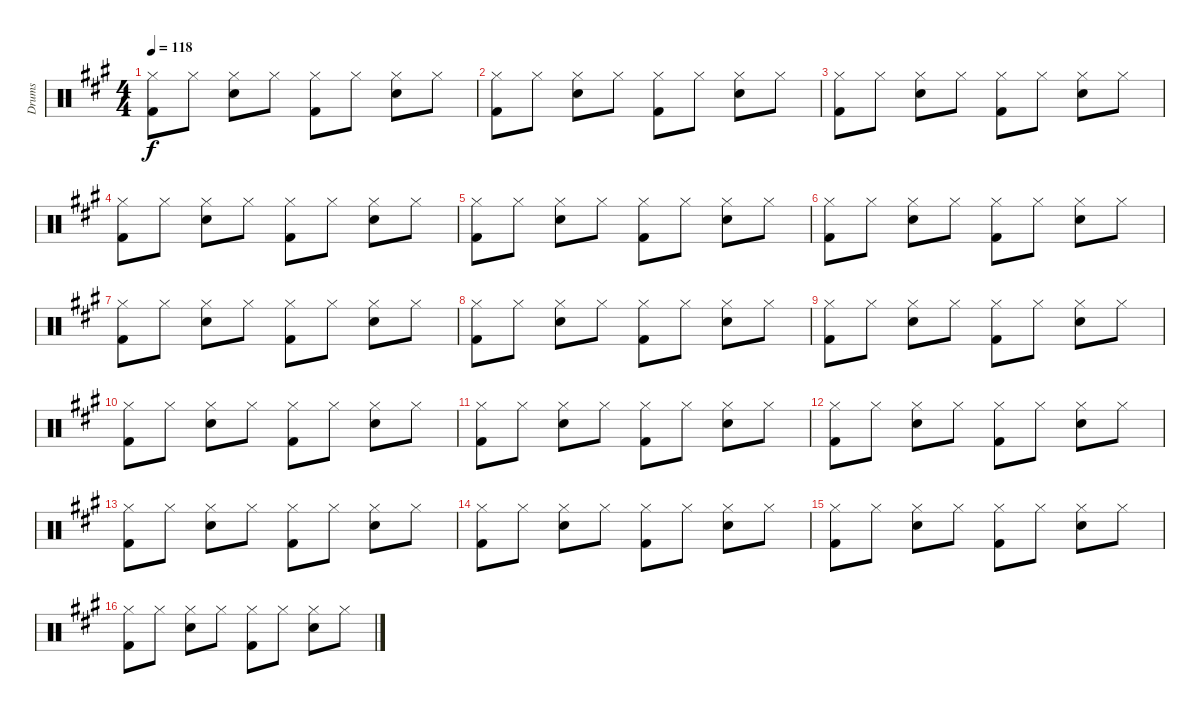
\track ("Drums" "Drums") {instrument percussion}
\staff {score}
\articulation defaults
\ts (4 4)
\tempo 118
\clef neutral
\ks f#minor
("Hi-Hat (closed)" "Kick (hit) 2").8{dy f} "Hi-Hat (closed)".8 ("Hi-Hat (closed)" "Snare (hit) 2").8 "Hi-Hat (closed)".8 ("Hi-Hat (closed)" "Kick (hit) 2").8 "Hi-Hat (closed)".8 ("Hi-Hat (closed)" "Snare (hit) 2").8 "Hi-Hat (closed)".8 |
("Hi-Hat (closed)" "Kick (hit) 2").8 "Hi-Hat (closed)".8 ("Hi-Hat (closed)" "Snare (hit) 2").8 "Hi-Hat (closed)".8 ("Hi-Hat (closed)" "Kick (hit) 2").8 "Hi-Hat (closed)".8 ("Hi-Hat (closed)" "Snare (hit) 2").8 "Hi-Hat (closed)".8 |
("Hi-Hat (closed)" "Kick (hit) 2").8 "Hi-Hat (closed)".8 ("Hi-Hat (closed)" "Snare (hit) 2").8 "Hi-Hat (closed)".8 ("Hi-Hat (closed)" "Kick (hit) 2").8 "Hi-Hat (closed)".8 ("Hi-Hat (closed)" "Snare (hit) 2").8 "Hi-Hat (closed)".8 |
("Hi-Hat (closed)" "Kick (hit) 2").8 "Hi-Hat (closed)".8 ("Hi-Hat (closed)" "Snare (hit) 2").8 "Hi-Hat (closed)".8 ("Hi-Hat (closed)" "Kick (hit) 2").8 "Hi-Hat (closed)".8 ("Hi-Hat (closed)" "Snare (hit) 2").8 "Hi-Hat (closed)".8 |
("Hi-Hat (closed)" "Kick (hit) 2").8 "Hi-Hat (closed)".8 ("Hi-Hat (closed)" "Snare (hit) 2").8 "Hi-Hat (closed)".8 ("Hi-Hat (closed)" "Kick (hit) 2").8 "Hi-Hat (closed)".8 ("Hi-Hat (closed)" "Snare (hit) 2").8 "Hi-Hat (closed)".8 |
("Hi-Hat (closed)" "Kick (hit) 2").8 "Hi-Hat (closed)".8 ("Hi-Hat (closed)" "Snare (hit) 2").8 "Hi-Hat (closed)".8 ("Hi-Hat (closed)" "Kick (hit) 2").8 "Hi-Hat (closed)".8 ("Hi-Hat (closed)" "Snare (hit) 2").8 "Hi-Hat (closed)".8 |
("Hi-Hat (closed)" "Kick (hit) 2").8 "Hi-Hat (closed)".8 ("Hi-Hat (closed)" "Snare (hit) 2").8 "Hi-Hat (closed)".8 ("Hi-Hat (closed)" "Kick (hit) 2").8 "Hi-Hat (closed)".8 ("Hi-Hat (closed)" "Snare (hit) 2").8 "Hi-Hat (closed)".8 |
("Hi-Hat (closed)" "Kick (hit) 2").8 "Hi-Hat (closed)".8 ("Hi-Hat (closed)" "Snare (hit) 2").8 "Hi-Hat (closed)".8 ("Hi-Hat (closed)" "Kick (hit) 2").8 "Hi-Hat (closed)".8 ("Hi-Hat (closed)" "Snare (hit) 2").8 "Hi-Hat (closed)".8 |
("Hi-Hat (closed)" "Kick (hit) 2").8 "Hi-Hat (closed)".8 ("Hi-Hat (closed)" "Snare (hit) 2").8 "Hi-Hat (closed)".8 ("Hi-Hat (closed)" "Kick (hit) 2").8 "Hi-Hat (closed)".8 ("Hi-Hat (closed)" "Snare (hit) 2").8 "Hi-Hat (closed)".8 |
("Hi-Hat (closed)" "Kick (hit) 2").8 "Hi-Hat (closed)".8 ("Hi-Hat (closed)" "Snare (hit) 2").8 "Hi-Hat (closed)".8 ("Hi-Hat (closed)" "Kick (hit) 2").8 "Hi-Hat (closed)".8 ("Hi-Hat (closed)" "Snare (hit) 2").8 "Hi-Hat (closed)".8 |
("Hi-Hat (closed)" "Kick (hit) 2").8 "Hi-Hat (closed)".8 ("Hi-Hat (closed)" "Snare (hit) 2").8 "Hi-Hat (closed)".8 ("Hi-Hat (closed)" "Kick (hit) 2").8 "Hi-Hat (closed)".8 ("Hi-Hat (closed)" "Snare (hit) 2").8 "Hi-Hat (closed)".8 |
("Hi-Hat (closed)" "Kick (hit) 2").8 "Hi-Hat (closed)".8 ("Hi-Hat (closed)" "Snare (hit) 2").8 "Hi-Hat (closed)".8 ("Hi-Hat (closed)" "Kick (hit) 2").8 "Hi-Hat (closed)".8 ("Hi-Hat (closed)" "Snare (hit) 2").8 "Hi-Hat (closed)".8 |
("Hi-Hat (closed)" "Kick (hit) 2").8 "Hi-Hat (closed)".8 ("Hi-Hat (closed)" "Snare (hit) 2").8 "Hi-Hat (closed)".8 ("Hi-Hat (closed)" "Kick (hit) 2").8 "Hi-Hat (closed)".8 ("Hi-Hat (closed)" "Snare (hit) 2").8 "Hi-Hat (closed)".8 |
("Hi-Hat (closed)" "Kick (hit) 2").8 "Hi-Hat (closed)".8 ("Hi-Hat (closed)" "Snare (hit) 2").8 "Hi-Hat (closed)".8 ("Hi-Hat (closed)" "Kick (hit) 2").8 "Hi-Hat (closed)".8 ("Hi-Hat (closed)" "Snare (hit) 2").8 "Hi-Hat (closed)".8 |
("Hi-Hat (closed)" "Kick (hit) 2").8 "Hi-Hat (closed)".8 ("Hi-Hat (closed)" "Snare (hit) 2").8 "Hi-Hat (closed)".8 ("Hi-Hat (closed)" "Kick (hit) 2").8 "Hi-Hat (closed)".8 ("Hi-Hat (closed)" "Snare (hit) 2").8 "Hi-Hat (closed)".8 |
("Hi-Hat (closed)" "Kick (hit) 2").8 "Hi-Hat (closed)".8 ("Hi-Hat (closed)" "Snare (hit) 2").8 "Hi-Hat (closed)".8 ("Hi-Hat (closed)" "Kick (hit) 2").8 "Hi-Hat (closed)".8 ("Hi-Hat (closed)" "Snare (hit) 2").8 "Hi-Hat (closed)".8
